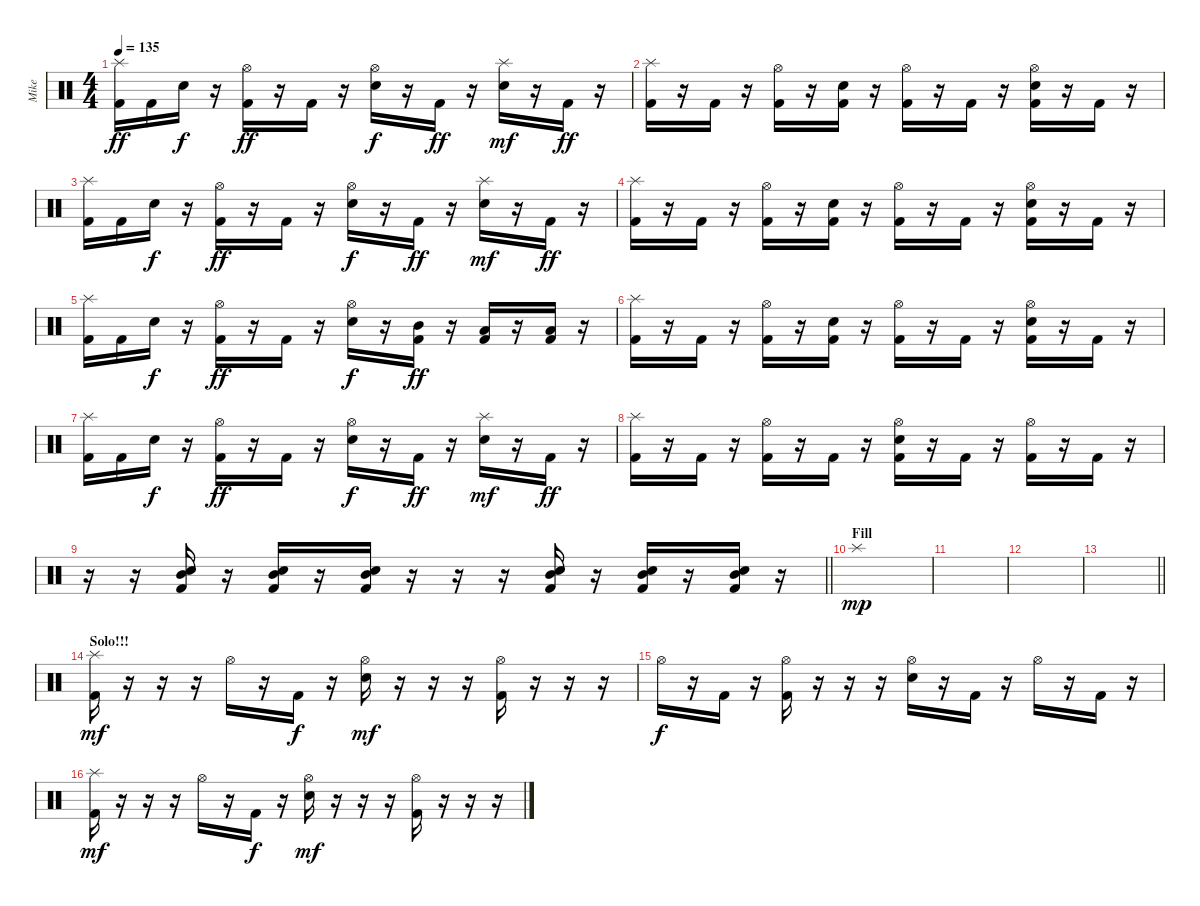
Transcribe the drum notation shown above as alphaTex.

\track ("Mike" "Mike") {instrument percussion}
\staff {score}
\articulation defaults
\ts (4 4)
\tempo 135
\clef neutral
\ks c
("Splash (hit)" "Kick (hit) 2").16{dy ff} "Kick (hit) 2".16 "Snare (hit) 2".16{dy f} r.16 ("Hi-Hat (open)" "Kick (hit) 2").16{dy ff} r.16 "Kick (hit) 2".16 r.16 ("Hi-Hat (open)" "Snare (hit) 2").16{dy f} r.16 "Kick (hit) 2".16{dy ff} r.16 ("Splash (hit)" "Snare (hit) 2").16{dy mf} r.16 "Kick (hit) 2".16{dy ff} r.16 |
("Splash (hit)" "Kick (hit) 2").16 r.16 "Kick (hit) 2".16 r.16 ("Hi-Hat (open)" "Kick (hit) 2").16 r.16 ("Snare (hit) 2" "Kick (hit) 2").16 r.16 ("Hi-Hat (open)" "Kick (hit) 2").16 r.16 "Kick (hit) 2".16 r.16 ("Hi-Hat (open)" "Snare (hit) 2" "Kick (hit) 2").16 r.16 "Kick (hit) 2".16 r.16 |
("Splash (hit)" "Kick (hit) 2").16 "Kick (hit) 2".16 "Snare (hit) 2".16{dy f} r.16 ("Hi-Hat (open)" "Kick (hit) 2").16{dy ff} r.16 "Kick (hit) 2".16 r.16 ("Hi-Hat (open)" "Snare (hit) 2").16{dy f} r.16 "Kick (hit) 2".16{dy ff} r.16 ("Splash (hit)" "Snare (hit) 2").16{dy mf} r.16 "Kick (hit) 2".16{dy ff} r.16 |
("Splash (hit)" "Kick (hit) 2").16 r.16 "Kick (hit) 2".16 r.16 ("Hi-Hat (open)" "Kick (hit) 2").16 r.16 ("Snare (hit) 2" "Kick (hit) 2").16 r.16 ("Hi-Hat (open)" "Kick (hit) 2").16 r.16 "Kick (hit) 2".16 r.16 ("Hi-Hat (open)" "Snare (hit) 2" "Kick (hit) 2").16 r.16 "Kick (hit) 2".16 r.16 |
("Splash (hit)" "Kick (hit) 2").16 "Kick (hit) 2".16 "Snare (hit) 2".16{dy f} r.16 ("Hi-Hat (open)" "Kick (hit) 2").16{dy ff} r.16 "Kick (hit) 2".16 r.16 ("Hi-Hat (open)" "Snare (hit) 2").16{dy f} r.16 ("Mid Tom (hit)" "Kick (hit) 2").16{dy ff} r.16 ("Low Tom (hit)" "Kick (hit) 2").16 r.16 ("Low Tom (hit)" "Kick (hit) 2").16 r.16 |
("Splash (hit)" "Kick (hit) 2").16 r.16 "Kick (hit) 2".16 r.16 ("Hi-Hat (open)" "Kick (hit) 2").16 r.16 ("Snare (hit) 2" "Kick (hit) 2").16 r.16 ("Hi-Hat (open)" "Kick (hit) 2").16 r.16 "Kick (hit) 2".16 r.16 ("Hi-Hat (open)" "Snare (hit) 2" "Kick (hit) 2").16 r.16 "Kick (hit) 2".16 r.16 |
("Splash (hit)" "Kick (hit) 2").16 "Kick (hit) 2".16 "Snare (hit) 2".16{dy f} r.16 ("Hi-Hat (open)" "Kick (hit) 2").16{dy ff} r.16 "Kick (hit) 2".16 r.16 ("Hi-Hat (open)" "Snare (hit) 2").16{dy f} r.16 "Kick (hit) 2".16{dy ff} r.16 ("Splash (hit)" "Snare (hit) 2").16{dy mf} r.16 "Kick (hit) 2".16{dy ff} r.16 |
("Splash (hit)" "Kick (hit) 2").16 r.16 "Kick (hit) 2".16 r.16 ("Hi-Hat (open)" "Kick (hit) 2").16 r.16 "Kick (hit) 2".16 r.16 ("Hi-Hat (open)" "Snare (hit) 2" "Kick (hit) 2").16 r.16 "Kick (hit) 2".16 r.16 ("Hi-Hat (open)" "Kick (hit) 2").16 r.16 "Kick (hit) 2".16 r.16 |
\barLineRight lightlight
r.16 r.16 ("Mid Tom (hit)" "Snare (hit) 2" "Kick (hit) 2").16 r.16 ("Mid Tom (hit)" "Snare (hit) 2" "Kick (hit) 2").16 r.16 ("Mid Tom (hit)" "Snare (hit) 2" "Kick (hit) 2").16 r.16 r.16 r.16 ("Mid Tom (hit)" "Snare (hit) 2" "Kick (hit) 2").16 r.16 ("Mid Tom (hit)" "Snare (hit) 2" "Kick (hit) 2").16 r.16 ("Mid Tom (hit)" "Snare (hit) 2" "Kick (hit) 2").16 r.16 |
\section ("" "Fill")
"Splash (hit)".1{dy mp} |
|
|
\barLineRight lightlight
|
\section ("" "Solo!!!")
("Splash (hit)" "Kick (hit) 2").16{dy mf} r.16 r.16 r.16 "Hi-Hat (open)".16 r.16 "Kick (hit) 2".16{dy f} r.16 ("Hi-Hat (open)" "Snare (hit) 2").16{dy mf} r.16 r.16 r.16 ("Hi-Hat (open)" "Kick (hit) 2").16 r.16 r.16 r.16 |
"Hi-Hat (open)".16{dy f} r.16 "Kick (hit) 2".16 r.16 ("Hi-Hat (open)" "Kick (hit) 2").16 r.16 r.16 r.16 ("Hi-Hat (open)" "Snare (hit) 2").16 r.16 "Kick (hit) 2".16 r.16 "Hi-Hat (open)".16 r.16 "Kick (hit) 2".16 r.16 |
("Splash (hit)" "Kick (hit) 2").16{dy mf} r.16 r.16 r.16 "Hi-Hat (open)".16 r.16 "Kick (hit) 2".16{dy f} r.16 ("Hi-Hat (open)" "Snare (hit) 2").16{dy mf} r.16 r.16 r.16 ("Hi-Hat (open)" "Kick (hit) 2").16 r.16 r.16 r.16
